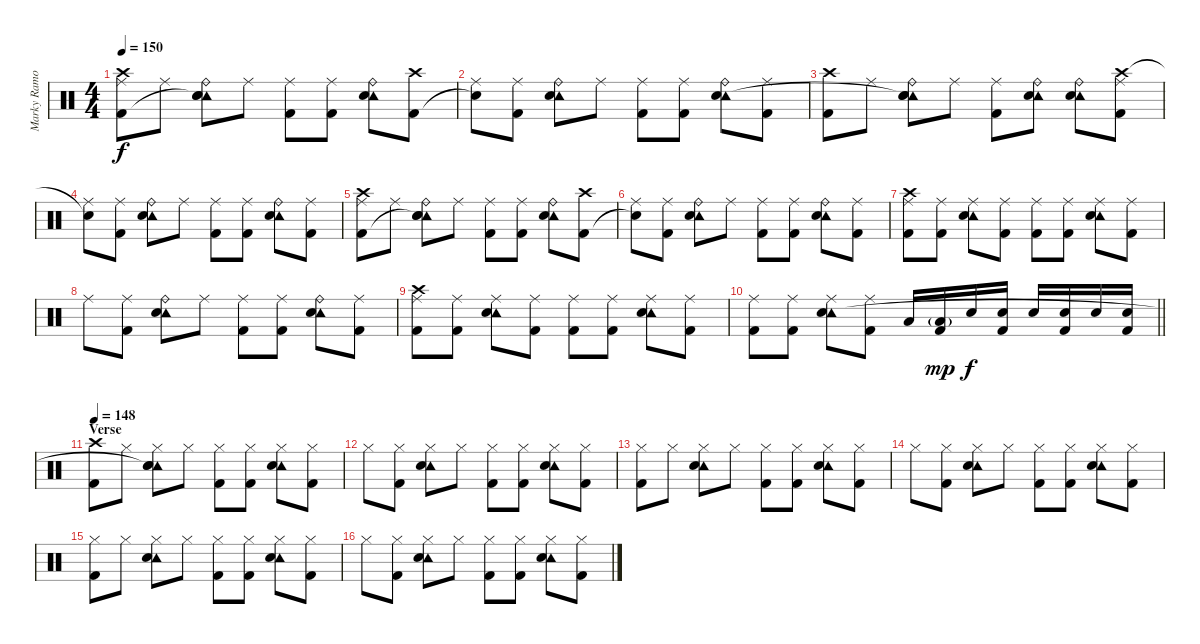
\track ("Marky Ramone - Drum" "Marky Ramo") {instrument percussion}
\staff {score}
\articulation defaults
\ts (4 4)
\tempo 150
\clef neutral
\ks c
("Ride (middle)" "Crash high (hit)" "Kick (hit) 2").8{dy f} "Ride (middle)".8 ("Ride (bell)" "Tambourine (hit)" "Snare (hit)"{t} "Snare (hit) 2").8 "Ride (middle)".8 ("Ride (middle)" "Kick (hit) 2").8 ("Ride (middle)" "Kick (hit) 2").8 ("Ride (bell)" "Tambourine (hit)" "Snare (hit) 2").8 ("Crash high (hit)" "Kick (hit) 2").8 |
("Ride (middle)" "Snare (hit)"{t}).8 ("Ride (middle)" "Kick (hit) 2").8 ("Ride (bell)" "Tambourine (hit)" "Snare (hit) 2").8 "Ride (middle)".8 ("Ride (middle)" "Kick (hit) 2").8 ("Ride (middle)" "Kick (hit) 2").8 ("Ride (bell)" "Tambourine (hit)" "Snare (hit) 2").8 ("Ride (middle)" "Kick (hit) 2").8 |
("Crash high (hit)" "Kick (hit) 2").8 "Ride (middle)".8 ("Ride (bell)" "Tambourine (hit)" "Snare (hit)"{t} "Snare (hit) 2").8 "Ride (middle)".8 ("Ride (middle)" "Kick (hit) 2").8 ("Ride (bell)" "Tambourine (hit)" "Snare (hit) 2").8 ("Ride (bell)" "Tambourine (hit)" "Snare (hit) 2").8 ("Ride (middle)" "Crash high (hit)" "Kick (hit) 2").8 |
("Ride (middle)" "Snare (hit)"{t}).8 ("Ride (middle)" "Kick (hit) 2").8 ("Ride (bell)" "Tambourine (hit)" "Snare (hit) 2").8 "Ride (middle)".8 ("Ride (middle)" "Kick (hit) 2").8 ("Ride (middle)" "Kick (hit) 2").8 ("Ride (bell)" "Tambourine (hit)" "Snare (hit) 2").8 ("Ride (middle)" "Kick (hit) 2").8 |
("Ride (middle)" "Crash high (hit)" "Kick (hit) 2").8 "Ride (middle)".8 ("Ride (bell)" "Tambourine (hit)" "Snare (hit)"{t} "Snare (hit) 2").8 "Ride (middle)".8 ("Ride (middle)" "Kick (hit) 2").8 ("Ride (middle)" "Kick (hit) 2").8 ("Ride (bell)" "Tambourine (hit)" "Snare (hit) 2").8 ("Crash high (hit)" "Kick (hit) 2").8 |
("Ride (middle)" "Snare (hit)"{t}).8 ("Ride (middle)" "Kick (hit) 2").8 ("Ride (bell)" "Tambourine (hit)" "Snare (hit) 2").8 "Ride (middle)".8 ("Ride (middle)" "Kick (hit) 2").8 ("Ride (middle)" "Kick (hit) 2").8 ("Ride (bell)" "Tambourine (hit)" "Snare (hit) 2").8 ("Ride (middle)" "Kick (hit) 2").8 |
("Ride (middle)" "Crash high (hit)" "Kick (hit) 2").8 ("Ride (middle)" "Kick (hit) 2").8 ("Ride (middle)" "Tambourine (hit)" "Snare (hit) 2").8 ("Ride (middle)" "Kick (hit) 2").8 ("Ride (middle)" "Kick (hit) 2").8 ("Ride (middle)" "Kick (hit) 2").8 ("Ride (middle)" "Tambourine (hit)" "Snare (hit) 2").8 ("Ride (middle)" "Kick (hit) 2").8 |
"Ride (middle)".8 ("Ride (middle)" "Kick (hit) 2").8 ("Ride (bell)" "Tambourine (hit)" "Snare (hit) 2").8 "Ride (middle)".8 ("Ride (middle)" "Kick (hit) 2").8 ("Ride (middle)" "Kick (hit) 2").8 ("Ride (bell)" "Tambourine (hit)" "Snare (hit) 2").8 ("Ride (middle)" "Kick (hit) 2").8 |
("Ride (middle)" "Crash high (hit)" "Kick (hit) 2").8 ("Ride (middle)" "Kick (hit) 2").8 ("Ride (middle)" "Tambourine (hit)" "Snare (hit) 2").8 ("Ride (middle)" "Kick (hit) 2").8 ("Ride (middle)" "Kick (hit) 2").8 ("Ride (middle)" "Kick (hit) 2").8 ("Ride (middle)" "Tambourine (hit)" "Snare (hit) 2").8 ("Ride (middle)" "Kick (hit) 2").8 |
\barLineRight lightlight
("Ride (middle)" "Kick (hit) 2").8 ("Ride (middle)" "Kick (hit) 2").8 ("Ride (middle)" "Tambourine (hit)" "Snare (hit) 2").8 ("Ride (middle)" "Kick (hit) 2").8 "Low Tom (hit)".16 ("Low Tom (hit)"{g} "Kick (hit) 2").16{dy mp} "Snare (hit) 2".16{dy f} ("Snare (hit) 2" "Kick (hit) 2").16 "Snare (hit) 2".16 ("Snare (hit) 2" "Kick (hit) 2").16 "Snare (hit) 2".16 ("Snare (hit) 2" "Kick (hit) 2").16 |
\section ("" "Verse")
\tempo 148
("Crash high (hit)" "Kick (hit) 2").8 "Hi-Hat (closed)".8 ("Hi-Hat (closed)" "Tambourine (hit)" "Snare (hit)"{t} "Snare (hit) 2").8 "Hi-Hat (closed)".8 ("Hi-Hat (closed)" "Kick (hit) 2").8 ("Hi-Hat (closed)" "Kick (hit) 2").8 ("Hi-Hat (closed)" "Tambourine (hit)" "Snare (hit) 2").8 ("Hi-Hat (closed)" "Kick (hit) 2").8 |
"Hi-Hat (closed)".8 ("Hi-Hat (closed)" "Kick (hit) 2").8 ("Hi-Hat (closed)" "Tambourine (hit)" "Snare (hit) 2").8 "Hi-Hat (closed)".8 ("Hi-Hat (closed)" "Kick (hit) 2").8 ("Hi-Hat (closed)" "Kick (hit) 2").8 ("Hi-Hat (closed)" "Tambourine (hit)" "Snare (hit) 2").8 ("Hi-Hat (closed)" "Kick (hit) 2").8 |
("Hi-Hat (closed)" "Kick (hit) 2").8 "Hi-Hat (closed)".8 ("Hi-Hat (closed)" "Tambourine (hit)" "Snare (hit) 2").8 "Hi-Hat (closed)".8 ("Hi-Hat (closed)" "Kick (hit) 2").8 ("Hi-Hat (closed)" "Kick (hit) 2").8 ("Hi-Hat (closed)" "Tambourine (hit)" "Snare (hit) 2").8 ("Hi-Hat (closed)" "Kick (hit) 2").8 |
"Hi-Hat (closed)".8 ("Hi-Hat (closed)" "Kick (hit) 2").8 ("Hi-Hat (closed)" "Tambourine (hit)" "Snare (hit) 2").8 "Hi-Hat (closed)".8 ("Hi-Hat (closed)" "Kick (hit) 2").8 ("Hi-Hat (closed)" "Kick (hit) 2").8 ("Hi-Hat (closed)" "Tambourine (hit)" "Snare (hit) 2").8 ("Hi-Hat (closed)" "Kick (hit) 2").8 |
("Hi-Hat (closed)" "Kick (hit) 2").8 "Hi-Hat (closed)".8 ("Hi-Hat (closed)" "Tambourine (hit)" "Snare (hit) 2").8 "Hi-Hat (closed)".8 ("Hi-Hat (closed)" "Kick (hit) 2").8 ("Hi-Hat (closed)" "Kick (hit) 2").8 ("Hi-Hat (closed)" "Tambourine (hit)" "Snare (hit) 2").8 ("Hi-Hat (closed)" "Kick (hit) 2").8 |
"Hi-Hat (closed)".8 ("Hi-Hat (closed)" "Kick (hit) 2").8 ("Hi-Hat (closed)" "Tambourine (hit)" "Snare (hit) 2").8 "Hi-Hat (closed)".8 ("Hi-Hat (closed)" "Kick (hit) 2").8 ("Hi-Hat (closed)" "Kick (hit) 2").8 ("Hi-Hat (closed)" "Tambourine (hit)" "Snare (hit) 2").8 ("Hi-Hat (closed)" "Kick (hit) 2").8
